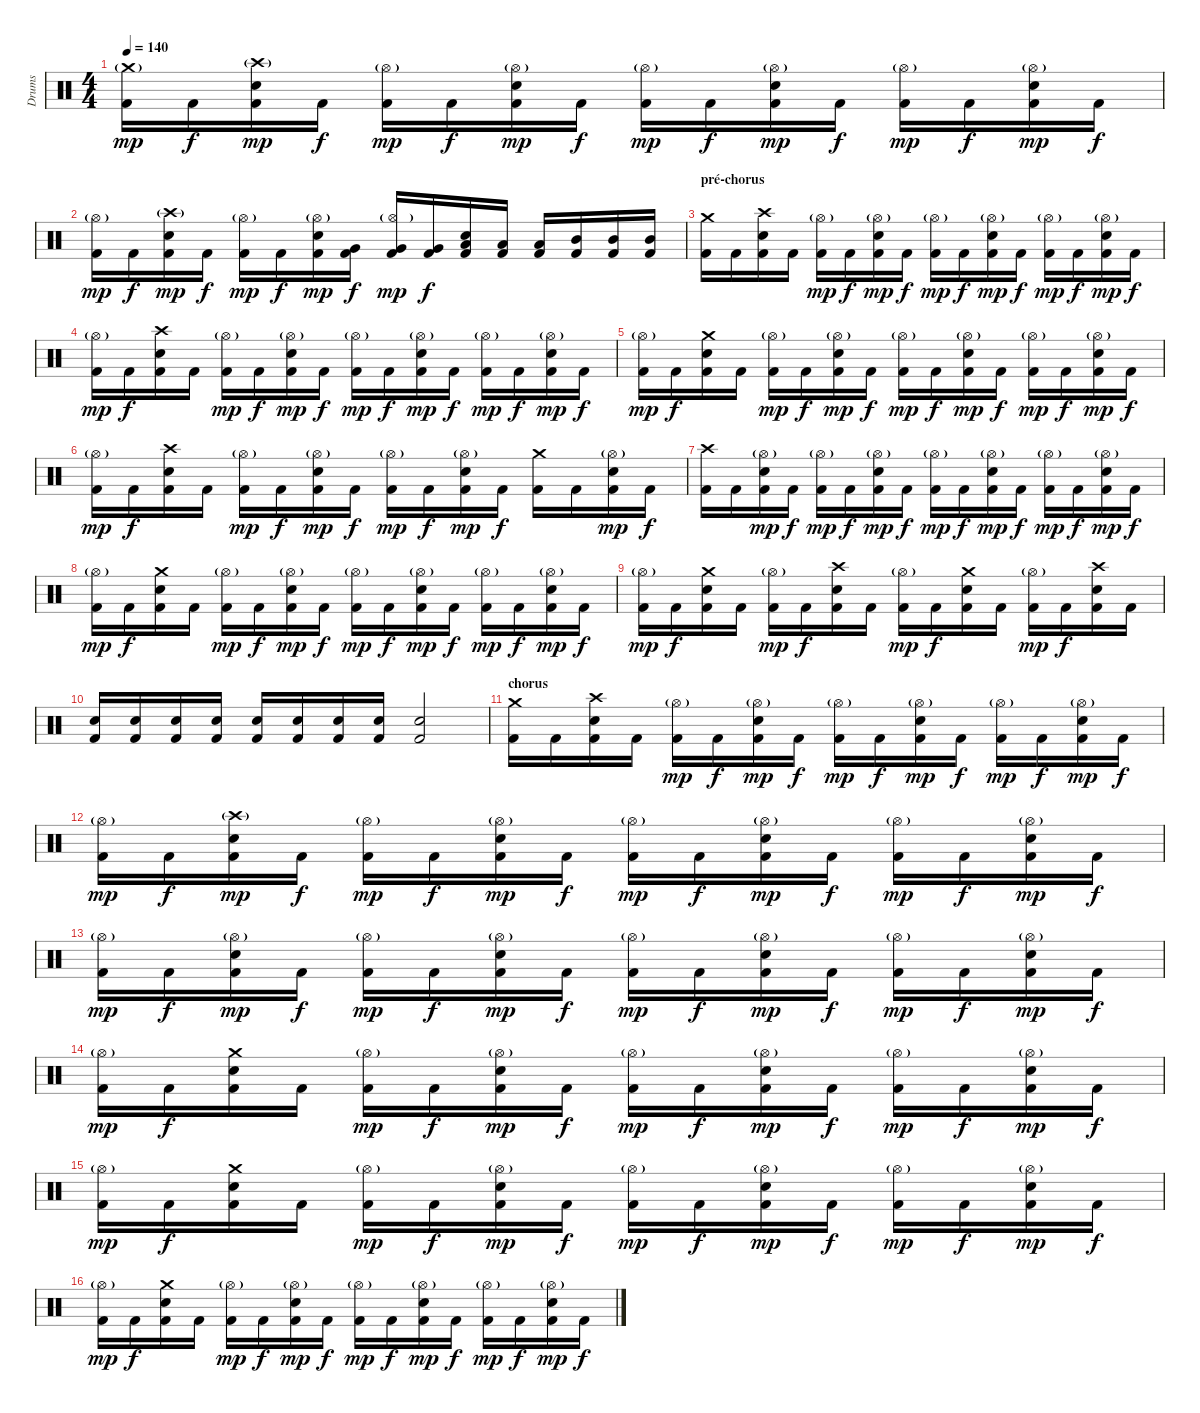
\track ("Drums" "Drums") {instrument percussion}
\staff {score}
\articulation defaults
\ts (4 4)
\tempo 140
\clef neutral
\ks c
("Crash medium (hit)"{g} "Kick (hit) 2").16{dy mp} "Kick (hit) 2".16{dy f} ("Crash high (hit)"{g} "Electric Snare (hit)" "Kick (hit) 2").16{dy mp} "Kick (hit) 2".16{dy f} ("Hi-Hat (open)"{g} "Kick (hit) 2").16{dy mp} "Kick (hit) 2".16{dy f} ("Hi-Hat (open)"{g} "Electric Snare (hit)" "Kick (hit) 2").16{dy mp} "Kick (hit) 2".16{dy f} ("Hi-Hat (open)"{g} "Kick (hit) 2").16{dy mp} "Kick (hit) 2".16{dy f} ("Hi-Hat (open)"{g} "Electric Snare (hit)" "Kick (hit) 2").16{dy mp} "Kick (hit) 2".16{dy f} ("Hi-Hat (open)"{g} "Kick (hit) 2").16{dy mp} "Kick (hit) 2".16{dy f} ("Hi-Hat (open)"{g} "Electric Snare (hit)" "Kick (hit) 2").16{dy mp} "Kick (hit) 2".16{dy f} |
("Hi-Hat (open)"{g} "Kick (hit) 2").16{dy mp} "Kick (hit) 2".16{dy f} ("Crash high (hit)"{g} "Electric Snare (hit)" "Kick (hit) 2").16{dy mp} "Kick (hit) 2".16{dy f} ("Hi-Hat (open)"{g} "Kick (hit) 2").16{dy mp} "Kick (hit) 2".16{dy f} ("Hi-Hat (open)"{g} "Electric Snare (hit)" "Kick (hit) 2").16{dy mp} ("Kick (hit) 2" "Very Low Tom (hit)").16{dy f} ("Hi-Hat (open)"{g} "Kick (hit) 2" "Very Low Tom (hit)").16{dy mp} ("Kick (hit) 2" "Very Low Tom (hit)").16{dy f} ("Electric Snare (hit)" "Kick (hit) 2" "Low Tom (hit)").16 ("Kick (hit) 2" "Low Tom (hit)").16 ("Kick (hit) 2" "Low Tom (hit)").16 ("Kick (hit) 2" "Mid Tom (hit)").16 ("Kick (hit) 2" "Mid Tom (hit)").16 ("Kick (hit) 2" "Mid Tom (hit)").16 |
\section ("" "pré-chorus")
("Crash medium (hit)" "Kick (hit) 2").16 "Kick (hit) 2".16 ("Crash high (hit)" "Electric Snare (hit)" "Kick (hit) 2").16 "Kick (hit) 2".16 ("Hi-Hat (open)"{g} "Kick (hit) 2").16{dy mp} "Kick (hit) 2".16{dy f} ("Hi-Hat (open)"{g} "Electric Snare (hit)" "Kick (hit) 2").16{dy mp} "Kick (hit) 2".16{dy f} ("Hi-Hat (open)"{g} "Kick (hit) 2").16{dy mp} "Kick (hit) 2".16{dy f} ("Hi-Hat (open)"{g} "Electric Snare (hit)" "Kick (hit) 2").16{dy mp} "Kick (hit) 2".16{dy f} ("Hi-Hat (open)"{g} "Kick (hit) 2").16{dy mp} "Kick (hit) 2".16{dy f} ("Hi-Hat (open)"{g} "Electric Snare (hit)" "Kick (hit) 2").16{dy mp} "Kick (hit) 2".16{dy f} |
("Hi-Hat (open)"{g} "Kick (hit) 2").16{dy mp} "Kick (hit) 2".16{dy f} ("Crash high (hit)" "Electric Snare (hit)" "Kick (hit) 2").16 "Kick (hit) 2".16 ("Hi-Hat (open)"{g} "Kick (hit) 2").16{dy mp} "Kick (hit) 2".16{dy f} ("Hi-Hat (open)"{g} "Electric Snare (hit)" "Kick (hit) 2").16{dy mp} "Kick (hit) 2".16{dy f} ("Hi-Hat (open)"{g} "Kick (hit) 2").16{dy mp} "Kick (hit) 2".16{dy f} ("Hi-Hat (open)"{g} "Electric Snare (hit)" "Kick (hit) 2").16{dy mp} "Kick (hit) 2".16{dy f} ("Hi-Hat (open)"{g} "Kick (hit) 2").16{dy mp} "Kick (hit) 2".16{dy f} ("Hi-Hat (open)"{g} "Electric Snare (hit)" "Kick (hit) 2").16{dy mp} "Kick (hit) 2".16{dy f} |
("Hi-Hat (open)"{g} "Kick (hit) 2").16{dy mp} "Kick (hit) 2".16{dy f} ("Crash medium (hit)" "Electric Snare (hit)" "Kick (hit) 2").16 "Kick (hit) 2".16 ("Hi-Hat (open)"{g} "Kick (hit) 2").16{dy mp} "Kick (hit) 2".16{dy f} ("Hi-Hat (open)"{g} "Electric Snare (hit)" "Kick (hit) 2").16{dy mp} "Kick (hit) 2".16{dy f} ("Hi-Hat (open)"{g} "Kick (hit) 2").16{dy mp} "Kick (hit) 2".16{dy f} ("Hi-Hat (open)"{g} "Electric Snare (hit)" "Kick (hit) 2").16{dy mp} "Kick (hit) 2".16{dy f} ("Hi-Hat (open)"{g} "Kick (hit) 2").16{dy mp} "Kick (hit) 2".16{dy f} ("Hi-Hat (open)"{g} "Electric Snare (hit)" "Kick (hit) 2").16{dy mp} "Kick (hit) 2".16{dy f} |
("Hi-Hat (open)"{g} "Kick (hit) 2").16{dy mp} "Kick (hit) 2".16{dy f} ("Crash high (hit)" "Electric Snare (hit)" "Kick (hit) 2").16 "Kick (hit) 2".16 ("Hi-Hat (open)"{g} "Kick (hit) 2").16{dy mp} "Kick (hit) 2".16{dy f} ("Hi-Hat (open)"{g} "Electric Snare (hit)" "Kick (hit) 2").16{dy mp} "Kick (hit) 2".16{dy f} ("Hi-Hat (open)"{g} "Kick (hit) 2").16{dy mp} "Kick (hit) 2".16{dy f} ("Hi-Hat (open)"{g} "Electric Snare (hit)" "Kick (hit) 2").16{dy mp} "Kick (hit) 2".16{dy f} ("Crash medium (hit)" "Kick (hit) 2").16 "Kick (hit) 2".16 ("Hi-Hat (open)"{g} "Electric Snare (hit)" "Kick (hit) 2").16{dy mp} "Kick (hit) 2".16{dy f} |
("Crash high (hit)" "Kick (hit) 2").16 "Kick (hit) 2".16 ("Hi-Hat (open)"{g} "Electric Snare (hit)" "Kick (hit) 2").16{dy mp} "Kick (hit) 2".16{dy f} ("Hi-Hat (open)"{g} "Kick (hit) 2").16{dy mp} "Kick (hit) 2".16{dy f} ("Hi-Hat (open)"{g} "Electric Snare (hit)" "Kick (hit) 2").16{dy mp} "Kick (hit) 2".16{dy f} ("Hi-Hat (open)"{g} "Kick (hit) 2").16{dy mp} "Kick (hit) 2".16{dy f} ("Hi-Hat (open)"{g} "Electric Snare (hit)" "Kick (hit) 2").16{dy mp} "Kick (hit) 2".16{dy f} ("Hi-Hat (open)"{g} "Kick (hit) 2").16{dy mp} "Kick (hit) 2".16{dy f} ("Hi-Hat (open)"{g} "Electric Snare (hit)" "Kick (hit) 2").16{dy mp} "Kick (hit) 2".16{dy f} |
("Hi-Hat (open)"{g} "Kick (hit) 2").16{dy mp} "Kick (hit) 2".16{dy f} ("Crash medium (hit)" "Electric Snare (hit)" "Kick (hit) 2").16 "Kick (hit) 2".16 ("Hi-Hat (open)"{g} "Kick (hit) 2").16{dy mp} "Kick (hit) 2".16{dy f} ("Hi-Hat (open)"{g} "Electric Snare (hit)" "Kick (hit) 2").16{dy mp} "Kick (hit) 2".16{dy f} ("Hi-Hat (open)"{g} "Kick (hit) 2").16{dy mp} "Kick (hit) 2".16{dy f} ("Hi-Hat (open)"{g} "Electric Snare (hit)" "Kick (hit) 2").16{dy mp} "Kick (hit) 2".16{dy f} ("Hi-Hat (open)"{g} "Kick (hit) 2").16{dy mp} "Kick (hit) 2".16{dy f} ("Hi-Hat (open)"{g} "Electric Snare (hit)" "Kick (hit) 2").16{dy mp} "Kick (hit) 2".16{dy f} |
("Hi-Hat (open)"{g} "Kick (hit) 2").16{dy mp} "Kick (hit) 2".16{dy f} ("Crash medium (hit)" "Electric Snare (hit)" "Kick (hit) 2").16 "Kick (hit) 2".16 ("Hi-Hat (open)"{g} "Kick (hit) 2").16{dy mp} "Kick (hit) 2".16{dy f} ("Crash high (hit)" "Electric Snare (hit)" "Kick (hit) 2").16 "Kick (hit) 2".16 ("Hi-Hat (open)"{g} "Kick (hit) 2").16{dy mp} "Kick (hit) 2".16{dy f} ("Crash medium (hit)" "Electric Snare (hit)" "Kick (hit) 2").16 "Kick (hit) 2".16 ("Hi-Hat (open)"{g} "Kick (hit) 2").16{dy mp} "Kick (hit) 2".16{dy f} ("Crash high (hit)" "Electric Snare (hit)" "Kick (hit) 2").16 "Kick (hit) 2".16 |
("Electric Snare (hit)" "Kick (hit) 2").16 ("Electric Snare (hit)" "Kick (hit) 2").16 ("Electric Snare (hit)" "Kick (hit) 2").16 ("Electric Snare (hit)" "Kick (hit) 2").16 ("Electric Snare (hit)" "Kick (hit) 2").16 ("Electric Snare (hit)" "Kick (hit) 2").16 ("Electric Snare (hit)" "Kick (hit) 2").16 ("Electric Snare (hit)" "Kick (hit) 2").16 ("Electric Snare (hit)" "Kick (hit) 2").2 |
\section ("" "chorus")
("Crash medium (hit)" "Kick (hit) 2").16 "Kick (hit) 2".16 ("Crash high (hit)" "Electric Snare (hit)" "Kick (hit) 2").16 "Kick (hit) 2".16 ("Hi-Hat (open)"{g} "Kick (hit) 2").16{dy mp} "Kick (hit) 2".16{dy f} ("Hi-Hat (open)"{g} "Electric Snare (hit)" "Kick (hit) 2").16{dy mp} "Kick (hit) 2".16{dy f} ("Hi-Hat (open)"{g} "Kick (hit) 2").16{dy mp} "Kick (hit) 2".16{dy f} ("Hi-Hat (open)"{g} "Electric Snare (hit)" "Kick (hit) 2").16{dy mp} "Kick (hit) 2".16{dy f} ("Hi-Hat (open)"{g} "Kick (hit) 2").16{dy mp} "Kick (hit) 2".16{dy f} ("Hi-Hat (open)"{g} "Electric Snare (hit)" "Kick (hit) 2").16{dy mp} "Kick (hit) 2".16{dy f} |
("Hi-Hat (open)"{g} "Kick (hit) 2").16{dy mp} "Kick (hit) 2".16{dy f} ("Crash high (hit)"{g} "Electric Snare (hit)" "Kick (hit) 2").16{dy mp} "Kick (hit) 2".16{dy f} ("Hi-Hat (open)"{g} "Kick (hit) 2").16{dy mp} "Kick (hit) 2".16{dy f} ("Hi-Hat (open)"{g} "Electric Snare (hit)" "Kick (hit) 2").16{dy mp} "Kick (hit) 2".16{dy f} ("Hi-Hat (open)"{g} "Kick (hit) 2").16{dy mp} "Kick (hit) 2".16{dy f} ("Hi-Hat (open)"{g} "Electric Snare (hit)" "Kick (hit) 2").16{dy mp} "Kick (hit) 2".16{dy f} ("Hi-Hat (open)"{g} "Kick (hit) 2").16{dy mp} "Kick (hit) 2".16{dy f} ("Hi-Hat (open)"{g} "Electric Snare (hit)" "Kick (hit) 2").16{dy mp} "Kick (hit) 2".16{dy f} |
("Hi-Hat (open)"{g} "Kick (hit) 2").16{dy mp} "Kick (hit) 2".16{dy f} ("Hi-Hat (open)"{g} "Electric Snare (hit)" "Kick (hit) 2").16{dy mp} "Kick (hit) 2".16{dy f} ("Hi-Hat (open)"{g} "Kick (hit) 2").16{dy mp} "Kick (hit) 2".16{dy f} ("Hi-Hat (open)"{g} "Electric Snare (hit)" "Kick (hit) 2").16{dy mp} "Kick (hit) 2".16{dy f} ("Hi-Hat (open)"{g} "Kick (hit) 2").16{dy mp} "Kick (hit) 2".16{dy f} ("Hi-Hat (open)"{g} "Electric Snare (hit)" "Kick (hit) 2").16{dy mp} "Kick (hit) 2".16{dy f} ("Hi-Hat (open)"{g} "Kick (hit) 2").16{dy mp} "Kick (hit) 2".16{dy f} ("Hi-Hat (open)"{g} "Electric Snare (hit)" "Kick (hit) 2").16{dy mp} "Kick (hit) 2".16{dy f} |
("Hi-Hat (open)"{g} "Kick (hit) 2").16{dy mp} "Kick (hit) 2".16{dy f} ("Crash medium (hit)" "Electric Snare (hit)" "Kick (hit) 2").16 "Kick (hit) 2".16 ("Hi-Hat (open)"{g} "Kick (hit) 2").16{dy mp} "Kick (hit) 2".16{dy f} ("Hi-Hat (open)"{g} "Electric Snare (hit)" "Kick (hit) 2").16{dy mp} "Kick (hit) 2".16{dy f} ("Hi-Hat (open)"{g} "Kick (hit) 2").16{dy mp} "Kick (hit) 2".16{dy f} ("Hi-Hat (open)"{g} "Electric Snare (hit)" "Kick (hit) 2").16{dy mp} "Kick (hit) 2".16{dy f} ("Hi-Hat (open)"{g} "Kick (hit) 2").16{dy mp} "Kick (hit) 2".16{dy f} ("Hi-Hat (open)"{g} "Electric Snare (hit)" "Kick (hit) 2").16{dy mp} "Kick (hit) 2".16{dy f} |
("Hi-Hat (open)"{g} "Kick (hit) 2").16{dy mp} "Kick (hit) 2".16{dy f} ("Crash medium (hit)" "Electric Snare (hit)" "Kick (hit) 2").16 "Kick (hit) 2".16 ("Hi-Hat (open)"{g} "Kick (hit) 2").16{dy mp} "Kick (hit) 2".16{dy f} ("Hi-Hat (open)"{g} "Electric Snare (hit)" "Kick (hit) 2").16{dy mp} "Kick (hit) 2".16{dy f} ("Hi-Hat (open)"{g} "Kick (hit) 2").16{dy mp} "Kick (hit) 2".16{dy f} ("Hi-Hat (open)"{g} "Electric Snare (hit)" "Kick (hit) 2").16{dy mp} "Kick (hit) 2".16{dy f} ("Hi-Hat (open)"{g} "Kick (hit) 2").16{dy mp} "Kick (hit) 2".16{dy f} ("Hi-Hat (open)"{g} "Electric Snare (hit)" "Kick (hit) 2").16{dy mp} "Kick (hit) 2".16{dy f} |
("Hi-Hat (open)"{g} "Kick (hit) 2").16{dy mp} "Kick (hit) 2".16{dy f} ("Crash medium (hit)" "Electric Snare (hit)" "Kick (hit) 2").16 "Kick (hit) 2".16 ("Hi-Hat (open)"{g} "Kick (hit) 2").16{dy mp} "Kick (hit) 2".16{dy f} ("Hi-Hat (open)"{g} "Electric Snare (hit)" "Kick (hit) 2").16{dy mp} "Kick (hit) 2".16{dy f} ("Hi-Hat (open)"{g} "Kick (hit) 2").16{dy mp} "Kick (hit) 2".16{dy f} ("Hi-Hat (open)"{g} "Electric Snare (hit)" "Kick (hit) 2").16{dy mp} "Kick (hit) 2".16{dy f} ("Hi-Hat (open)"{g} "Kick (hit) 2").16{dy mp} "Kick (hit) 2".16{dy f} ("Hi-Hat (open)"{g} "Electric Snare (hit)" "Kick (hit) 2").16{dy mp} "Kick (hit) 2".16{dy f}
